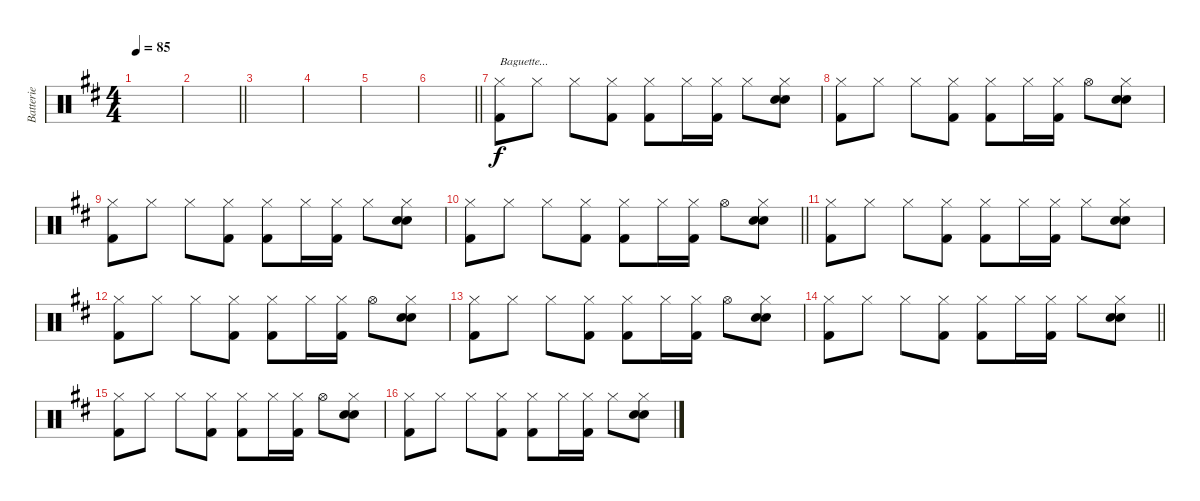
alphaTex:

\track ("Batterie" "Batterie") {instrument percussion}
\staff {score}
\articulation defaults
\ts (4 4)
\tempo 85
\clef neutral
\ks bminor
|
\barLineRight lightlight
|
|
|
|
\barLineRight lightlight
|
("Hi-Hat (closed)" "Kick (hit) 2").8{txt "Baguette..."} "Hi-Hat (closed)".8 "Hi-Hat (closed)".8 ("Hi-Hat (closed)" "Kick (hit) 2").8 ("Hi-Hat (closed)" "Kick (hit) 2").8 "Hi-Hat (closed)".16 ("Hi-Hat (closed)" "Kick (hit) 2").16 "Hi-Hat (closed)".8 ("Hi-Hat (closed)" "Snare (hit) 2" "Electric Snare (hit)").8 |
("Hi-Hat (closed)" "Kick (hit) 2").8 "Hi-Hat (closed)".8 "Hi-Hat (closed)".8 ("Hi-Hat (closed)" "Kick (hit) 2").8 ("Hi-Hat (closed)" "Kick (hit) 2").8 "Hi-Hat (closed)".16 ("Hi-Hat (closed)" "Kick (hit) 2").16 "Hi-Hat (open)".8 ("Hi-Hat (closed)" "Snare (hit) 2" "Electric Snare (hit)").8 |
("Hi-Hat (closed)" "Kick (hit) 2").8 "Hi-Hat (closed)".8 "Hi-Hat (closed)".8 ("Hi-Hat (closed)" "Kick (hit) 2").8 ("Hi-Hat (closed)" "Kick (hit) 2").8 "Hi-Hat (closed)".16 ("Hi-Hat (closed)" "Kick (hit) 2").16 "Hi-Hat (closed)".8 ("Hi-Hat (closed)" "Snare (hit) 2" "Electric Snare (hit)").8 |
\barLineRight lightlight
("Hi-Hat (closed)" "Kick (hit) 2").8 "Hi-Hat (closed)".8 "Hi-Hat (closed)".8 ("Hi-Hat (closed)" "Kick (hit) 2").8 ("Hi-Hat (closed)" "Kick (hit) 2").8 "Hi-Hat (closed)".16 ("Hi-Hat (closed)" "Kick (hit) 2").16 "Hi-Hat (open)".8 ("Hi-Hat (closed)" "Snare (hit) 2" "Electric Snare (hit)").8 |
("Hi-Hat (closed)" "Kick (hit) 2").8 "Hi-Hat (closed)".8 "Hi-Hat (closed)".8 ("Hi-Hat (closed)" "Kick (hit) 2").8 ("Hi-Hat (closed)" "Kick (hit) 2").8 "Hi-Hat (closed)".16 ("Hi-Hat (closed)" "Kick (hit) 2").16 "Hi-Hat (closed)".8 ("Hi-Hat (closed)" "Snare (hit) 2" "Electric Snare (hit)").8 |
("Hi-Hat (closed)" "Kick (hit) 2").8 "Hi-Hat (closed)".8 "Hi-Hat (closed)".8 ("Hi-Hat (closed)" "Kick (hit) 2").8 ("Hi-Hat (closed)" "Kick (hit) 2").8 "Hi-Hat (closed)".16 ("Hi-Hat (closed)" "Kick (hit) 2").16 "Hi-Hat (open)".8 ("Hi-Hat (closed)" "Snare (hit) 2" "Electric Snare (hit)").8 |
("Hi-Hat (closed)" "Kick (hit) 2").8 "Hi-Hat (closed)".8 "Hi-Hat (closed)".8 ("Hi-Hat (closed)" "Kick (hit) 2").8 ("Hi-Hat (closed)" "Kick (hit) 2").8 "Hi-Hat (closed)".16 ("Hi-Hat (closed)" "Kick (hit) 2").16 "Hi-Hat (open)".8 ("Hi-Hat (closed)" "Snare (hit) 2" "Electric Snare (hit)").8 |
\barLineRight lightlight
("Hi-Hat (closed)" "Kick (hit) 2").8 "Hi-Hat (closed)".8 "Hi-Hat (closed)".8 ("Hi-Hat (closed)" "Kick (hit) 2").8 ("Hi-Hat (closed)" "Kick (hit) 2").8 "Hi-Hat (closed)".16 ("Hi-Hat (closed)" "Kick (hit) 2").16 "Hi-Hat (closed)".8 ("Hi-Hat (closed)" "Snare (hit) 2" "Electric Snare (hit)").8 |
("Hi-Hat (closed)" "Kick (hit) 2").8 "Hi-Hat (closed)".8 "Hi-Hat (closed)".8 ("Hi-Hat (closed)" "Kick (hit) 2").8 ("Hi-Hat (closed)" "Kick (hit) 2").8 "Hi-Hat (closed)".16 ("Hi-Hat (closed)" "Kick (hit) 2").16 "Hi-Hat (open)".8 ("Hi-Hat (closed)" "Snare (hit) 2" "Electric Snare (hit)").8 |
("Hi-Hat (closed)" "Kick (hit) 2").8 "Hi-Hat (closed)".8 "Hi-Hat (closed)".8 ("Hi-Hat (closed)" "Kick (hit) 2").8 ("Hi-Hat (closed)" "Kick (hit) 2").8 "Hi-Hat (closed)".16 ("Hi-Hat (closed)" "Kick (hit) 2").16 "Hi-Hat (closed)".8 ("Hi-Hat (closed)" "Snare (hit) 2" "Electric Snare (hit)").8
